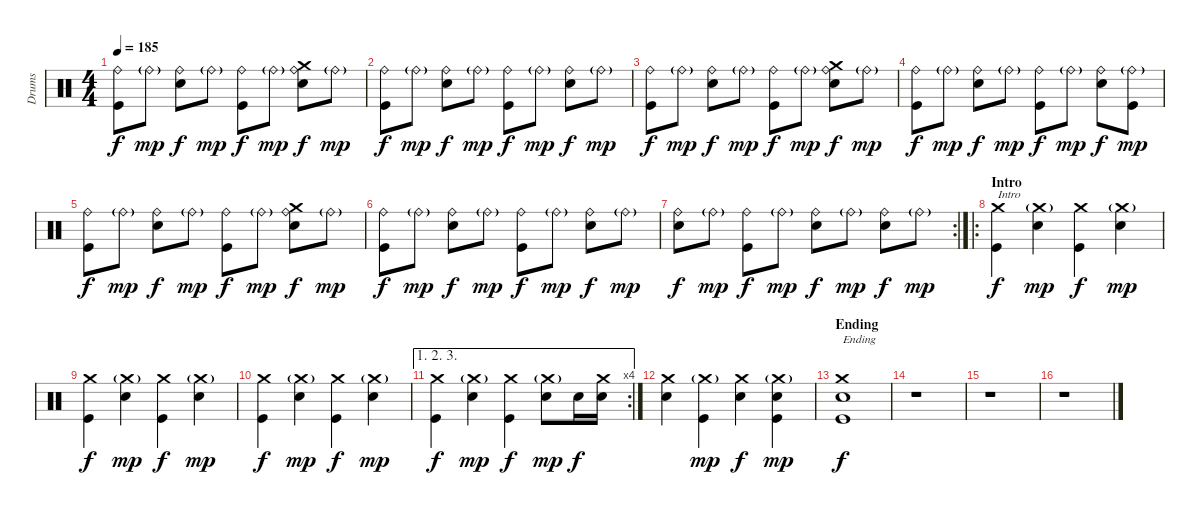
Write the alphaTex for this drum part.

\track ("Drums" "Drums") {instrument percussion}
\staff {score}
\articulation defaults
\ts (4 4)
\tempo 185
\clef neutral
\ks c
("Ride (bell)" "Kick (hit)").8{dy f} "Ride (bell)"{g}.8{dy mp} ("Ride (bell)" "Snare (hit) 2").8{dy f} "Ride (bell)"{g}.8{dy mp} ("Ride (bell)" "Kick (hit)").8{dy f} "Ride (bell)"{g}.8{dy mp} ("Crash medium (hit)" "Ride (bell)" "Snare (hit) 2").8{dy f} "Ride (bell)"{g}.8{dy mp} |
("Ride (bell)" "Kick (hit)").8{dy f} "Ride (bell)"{g}.8{dy mp} ("Ride (bell)" "Snare (hit) 2").8{dy f} "Ride (bell)"{g}.8{dy mp} ("Ride (bell)" "Kick (hit)").8{dy f} "Ride (bell)"{g}.8{dy mp} ("Ride (bell)" "Snare (hit) 2").8{dy f} "Ride (bell)"{g}.8{dy mp} |
("Ride (bell)" "Kick (hit)").8{dy f} "Ride (bell)"{g}.8{dy mp} ("Ride (bell)" "Snare (hit) 2").8{dy f} "Ride (bell)"{g}.8{dy mp} ("Ride (bell)" "Kick (hit)").8{dy f} "Ride (bell)"{g}.8{dy mp} ("Crash medium (hit)" "Ride (bell)" "Snare (hit) 2").8{dy f} "Ride (bell)"{g}.8{dy mp} |
("Ride (bell)" "Kick (hit)").8{dy f} "Ride (bell)"{g}.8{dy mp} ("Ride (bell)" "Snare (hit) 2").8{dy f} "Ride (bell)"{g}.8{dy mp} ("Ride (bell)" "Kick (hit)").8{dy f} "Ride (bell)"{g}.8{dy mp} ("Ride (bell)" "Snare (hit) 2").8{dy f} ("Ride (bell)"{g} "Kick (hit)").8{dy mp} |
("Ride (bell)" "Kick (hit)").8{dy f} "Ride (bell)"{g}.8{dy mp} ("Ride (bell)" "Snare (hit) 2").8{dy f} "Ride (bell)"{g}.8{dy mp} ("Ride (bell)" "Kick (hit)").8{dy f} "Ride (bell)"{g}.8{dy mp} ("Crash medium (hit)" "Ride (bell)" "Snare (hit) 2").8{dy f} "Ride (bell)"{g}.8{dy mp} |
("Ride (bell)" "Kick (hit)").8{dy f} "Ride (bell)"{g}.8{dy mp} ("Ride (bell)" "Snare (hit) 2").8{dy f} "Ride (bell)"{g}.8{dy mp} ("Ride (bell)" "Kick (hit)").8{dy f} "Ride (bell)"{g}.8{dy mp} ("Ride (bell)" "Snare (hit) 2").8{dy f} "Ride (bell)"{g}.8{dy mp} |
\rc 2
("Ride (bell)" "Snare (hit) 2").8{dy f} "Ride (bell)"{g}.8{dy mp} ("Ride (bell)" "Kick (hit)").8{dy f} "Ride (bell)"{g}.8{dy mp} ("Ride (bell)" "Snare (hit) 2").8{dy f} "Ride (bell)"{g}.8{dy mp} ("Ride (bell)" "Snare (hit) 2").8{dy f} "Ride (bell)"{g}.8{dy mp} |
\ro
\section ("" "Intro")
("Crash medium (hit)" "Kick (hit)").4{txt "Intro" dy f} ("Crash medium (hit)"{g} "Snare (hit) 2").4{dy mp} ("Crash medium (hit)" "Kick (hit)").4{dy f} ("Crash medium (hit)"{g} "Snare (hit) 2").4{dy mp} |
("Crash medium (hit)" "Kick (hit)").4{dy f} ("Crash medium (hit)"{g} "Snare (hit) 2").4{dy mp} ("Crash medium (hit)" "Kick (hit)").4{dy f} ("Crash medium (hit)"{g} "Snare (hit) 2").4{dy mp} |
("Crash medium (hit)" "Kick (hit)").4{dy f} ("Crash medium (hit)"{g} "Snare (hit) 2").4{dy mp} ("Crash medium (hit)" "Kick (hit)").4{dy f} ("Crash medium (hit)"{g} "Snare (hit) 2").4{dy mp} |
\ae (1 2 3)
\rc 4
("Crash medium (hit)" "Kick (hit)").4{dy f} ("Crash medium (hit)"{g} "Snare (hit) 2").4{dy mp} ("Crash medium (hit)" "Kick (hit)").4{dy f} ("Crash medium (hit)"{g} "Snare (hit) 2").8{dy mp} "Snare (hit) 2".16{dy f} ("Crash medium (hit)" "Snare (hit) 2").16 |
("Crash medium (hit)" "Snare (hit) 2").4 ("Crash medium (hit)"{g} "Kick (hit)").4{dy mp} ("Crash medium (hit)" "Snare (hit) 2").4{dy f} ("Crash medium (hit)"{g} "Snare (hit) 2" "Kick (hit)").4{dy mp} |
\section ("" "Ending")
("Crash medium (hit)" "Snare (hit) 2" "Kick (hit)").1{txt "Ending" dy f} |
r.1 |
r.1 |
r.1
